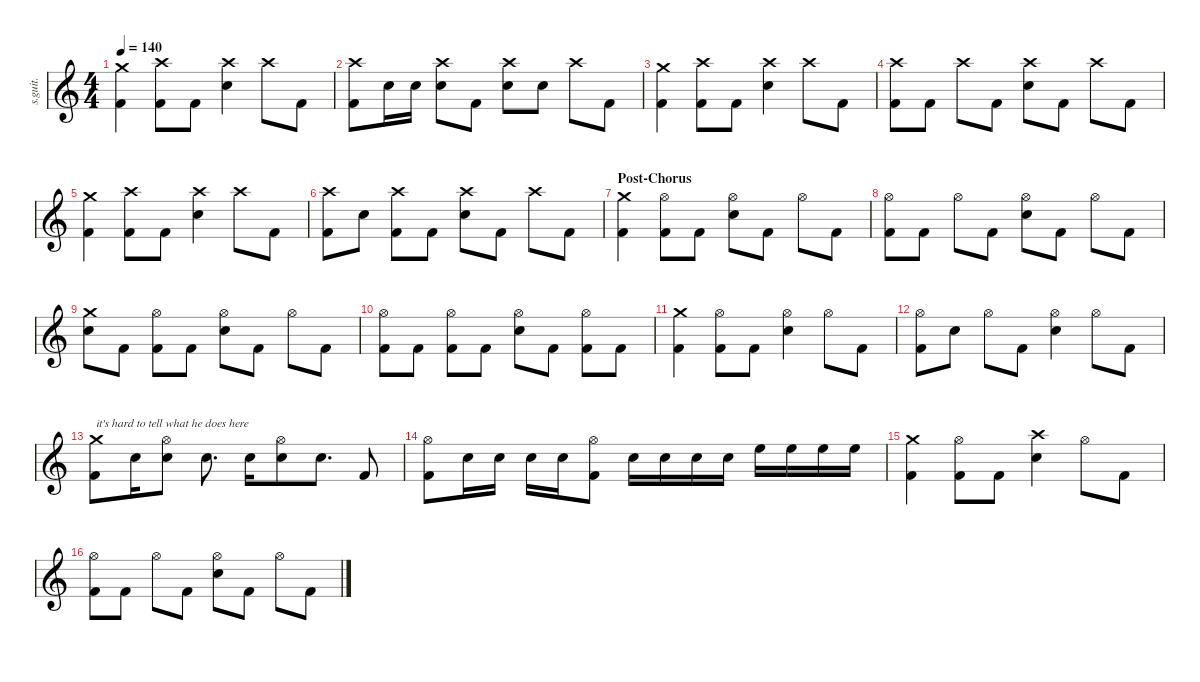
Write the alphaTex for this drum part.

\defaultSystemsLayout 4
\hideDynamics
\bracketExtendMode nobrackets
\track ("Abe Cunningham" "s.guit.") {instrument percussion}
\staff {score}
\articulation defaults
\ts (4 4)
\tempo 140
\clef g2
\ks c
("Crash medium (hit)" "Kick (hit) 2").4{lyrics (0 "") lyrics (1 "") lyrics (2 "") lyrics (3 "") lyrics (4 "") dy fff} ("Crash high (hit)" "Kick (hit) 2").8{lyrics (0 "") lyrics (1 "") lyrics (2 "") lyrics (3 "") lyrics (4 "")} "Kick (hit) 2".8{lyrics (0 "") lyrics (1 "") lyrics (2 "") lyrics (3 "") lyrics (4 "")} ("Crash high (hit)" "Snare (hit) 2").4{lyrics (0 "") lyrics (1 "") lyrics (2 "") lyrics (3 "") lyrics (4 "")} "Crash high (hit)".8{lyrics (0 "") lyrics (1 "") lyrics (2 "") lyrics (3 "") lyrics (4 "")} "Kick (hit) 2".8{lyrics (0 "") lyrics (1 "") lyrics (2 "") lyrics (3 "") lyrics (4 "")} |
("Crash high (hit)" "Kick (hit) 2").8{lyrics (0 "") lyrics (1 "") lyrics (2 "") lyrics (3 "") lyrics (4 "")} "Snare (hit) 2".16{lyrics (0 "") lyrics (1 "") lyrics (2 "") lyrics (3 "") lyrics (4 "")} "Snare (hit) 2".16{lyrics (0 "") lyrics (1 "") lyrics (2 "") lyrics (3 "") lyrics (4 "")} ("Crash high (hit)" "Snare (hit) 2").8{lyrics (0 "") lyrics (1 "") lyrics (2 "") lyrics (3 "") lyrics (4 "")} "Kick (hit) 2".8{lyrics (0 "") lyrics (1 "") lyrics (2 "") lyrics (3 "") lyrics (4 "")} ("Crash high (hit)" "Snare (hit) 2").8{lyrics (0 "") lyrics (1 "") lyrics (2 "") lyrics (3 "") lyrics (4 "")} "Snare (hit) 2".8{lyrics (0 "") lyrics (1 "") lyrics (2 "") lyrics (3 "") lyrics (4 "")} "Crash high (hit)".8{lyrics (0 "") lyrics (1 "") lyrics (2 "") lyrics (3 "") lyrics (4 "")} "Kick (hit) 2".8{lyrics (0 "") lyrics (1 "") lyrics (2 "") lyrics (3 "") lyrics (4 "")} |
("Crash medium (hit)" "Kick (hit) 2").4{lyrics (0 "") lyrics (1 "") lyrics (2 "") lyrics (3 "") lyrics (4 "")} ("Crash high (hit)" "Kick (hit) 2").8{lyrics (0 "") lyrics (1 "") lyrics (2 "") lyrics (3 "") lyrics (4 "")} "Kick (hit) 2".8{lyrics (0 "") lyrics (1 "") lyrics (2 "") lyrics (3 "") lyrics (4 "")} ("Crash high (hit)" "Snare (hit) 2").4{lyrics (0 "") lyrics (1 "") lyrics (2 "") lyrics (3 "") lyrics (4 "")} "Crash high (hit)".8{lyrics (0 "") lyrics (1 "") lyrics (2 "") lyrics (3 "") lyrics (4 "")} "Kick (hit) 2".8{lyrics (0 "") lyrics (1 "") lyrics (2 "") lyrics (3 "") lyrics (4 "")} |
("Crash high (hit)" "Kick (hit) 2").8{lyrics (0 "") lyrics (1 "") lyrics (2 "") lyrics (3 "") lyrics (4 "")} "Kick (hit) 2".8{lyrics (0 "") lyrics (1 "") lyrics (2 "") lyrics (3 "") lyrics (4 "")} "Crash high (hit)".8{lyrics (0 "") lyrics (1 "") lyrics (2 "") lyrics (3 "") lyrics (4 "")} "Kick (hit) 2".8{lyrics (0 "") lyrics (1 "") lyrics (2 "") lyrics (3 "") lyrics (4 "")} ("Crash high (hit)" "Snare (hit) 2").8{lyrics (0 "") lyrics (1 "") lyrics (2 "") lyrics (3 "") lyrics (4 "")} "Kick (hit) 2".8{lyrics (0 "") lyrics (1 "") lyrics (2 "") lyrics (3 "") lyrics (4 "")} "Crash high (hit)".8{lyrics (0 "") lyrics (1 "") lyrics (2 "") lyrics (3 "") lyrics (4 "")} "Kick (hit) 2".8{lyrics (0 "") lyrics (1 "") lyrics (2 "") lyrics (3 "") lyrics (4 "")} |
("Crash medium (hit)" "Kick (hit) 2").4{lyrics (0 "") lyrics (1 "") lyrics (2 "") lyrics (3 "") lyrics (4 "")} ("Crash high (hit)" "Kick (hit) 2").8{lyrics (0 "") lyrics (1 "") lyrics (2 "") lyrics (3 "") lyrics (4 "")} "Kick (hit) 2".8{lyrics (0 "") lyrics (1 "") lyrics (2 "") lyrics (3 "") lyrics (4 "")} ("Crash high (hit)" "Snare (hit) 2").4{lyrics (0 "") lyrics (1 "") lyrics (2 "") lyrics (3 "") lyrics (4 "")} "Crash high (hit)".8{lyrics (0 "") lyrics (1 "") lyrics (2 "") lyrics (3 "") lyrics (4 "")} "Kick (hit) 2".8{lyrics (0 "") lyrics (1 "") lyrics (2 "") lyrics (3 "") lyrics (4 "")} |
("Crash high (hit)" "Kick (hit) 2").8{lyrics (0 "") lyrics (1 "") lyrics (2 "") lyrics (3 "") lyrics (4 "")} "Snare (hit) 2".8{lyrics (0 "") lyrics (1 "") lyrics (2 "") lyrics (3 "") lyrics (4 "")} ("Crash high (hit)" "Kick (hit) 2").8{lyrics (0 "") lyrics (1 "") lyrics (2 "") lyrics (3 "") lyrics (4 "")} "Kick (hit) 2".8{lyrics (0 "") lyrics (1 "") lyrics (2 "") lyrics (3 "") lyrics (4 "")} ("Crash high (hit)" "Snare (hit) 2").8{lyrics (0 "") lyrics (1 "") lyrics (2 "") lyrics (3 "") lyrics (4 "")} "Kick (hit) 2".8{lyrics (0 "") lyrics (1 "") lyrics (2 "") lyrics (3 "") lyrics (4 "")} "Crash high (hit)".8{lyrics (0 "") lyrics (1 "") lyrics (2 "") lyrics (3 "") lyrics (4 "")} "Kick (hit) 2".8{lyrics (0 "") lyrics (1 "") lyrics (2 "") lyrics (3 "") lyrics (4 "")} |
\section ("" "Post-Chorus")
("Crash medium (hit)" "Kick (hit) 2").4{lyrics (0 "") lyrics (1 "") lyrics (2 "") lyrics (3 "") lyrics (4 "")} ("Hi-Hat (open)" "Kick (hit) 2").8{lyrics (0 "") lyrics (1 "") lyrics (2 "") lyrics (3 "") lyrics (4 "")} "Kick (hit) 2".8{lyrics (0 "") lyrics (1 "") lyrics (2 "") lyrics (3 "") lyrics (4 "")} ("Hi-Hat (open)" "Snare (hit) 2").8{lyrics (0 "") lyrics (1 "") lyrics (2 "") lyrics (3 "") lyrics (4 "")} "Kick (hit) 2".8{lyrics (0 "") lyrics (1 "") lyrics (2 "") lyrics (3 "") lyrics (4 "")} "Hi-Hat (open)".8{lyrics (0 "") lyrics (1 "") lyrics (2 "") lyrics (3 "") lyrics (4 "")} "Kick (hit) 2".8{lyrics (0 "") lyrics (1 "") lyrics (2 "") lyrics (3 "") lyrics (4 "")} |
("Hi-Hat (open)" "Kick (hit) 2").8{lyrics (0 "") lyrics (1 "") lyrics (2 "") lyrics (3 "") lyrics (4 "")} "Kick (hit) 2".8{lyrics (0 "") lyrics (1 "") lyrics (2 "") lyrics (3 "") lyrics (4 "")} "Hi-Hat (open)".8{lyrics (0 "") lyrics (1 "") lyrics (2 "") lyrics (3 "") lyrics (4 "")} "Kick (hit) 2".8{lyrics (0 "") lyrics (1 "") lyrics (2 "") lyrics (3 "") lyrics (4 "")} ("Hi-Hat (open)" "Snare (hit) 2").8{lyrics (0 "") lyrics (1 "") lyrics (2 "") lyrics (3 "") lyrics (4 "")} "Kick (hit) 2".8{lyrics (0 "") lyrics (1 "") lyrics (2 "") lyrics (3 "") lyrics (4 "")} "Hi-Hat (open)".8{lyrics (0 "") lyrics (1 "") lyrics (2 "") lyrics (3 "") lyrics (4 "")} "Kick (hit) 2".8{lyrics (0 "") lyrics (1 "") lyrics (2 "") lyrics (3 "") lyrics (4 "")} |
("Crash medium (hit)" "Snare (hit) 2").8{lyrics (0 "") lyrics (1 "") lyrics (2 "") lyrics (3 "") lyrics (4 "")} "Kick (hit) 2".8{lyrics (0 "") lyrics (1 "") lyrics (2 "") lyrics (3 "") lyrics (4 "")} ("Hi-Hat (open)" "Kick (hit) 2").8{lyrics (0 "") lyrics (1 "") lyrics (2 "") lyrics (3 "") lyrics (4 "")} "Kick (hit) 2".8{lyrics (0 "") lyrics (1 "") lyrics (2 "") lyrics (3 "") lyrics (4 "")} ("Hi-Hat (open)" "Snare (hit) 2").8{lyrics (0 "") lyrics (1 "") lyrics (2 "") lyrics (3 "") lyrics (4 "")} "Kick (hit) 2".8{lyrics (0 "") lyrics (1 "") lyrics (2 "") lyrics (3 "") lyrics (4 "")} "Hi-Hat (open)".8{lyrics (0 "") lyrics (1 "") lyrics (2 "") lyrics (3 "") lyrics (4 "")} "Kick (hit) 2".8{lyrics (0 "") lyrics (1 "") lyrics (2 "") lyrics (3 "") lyrics (4 "")} |
("Hi-Hat (open)" "Kick (hit) 2").8{lyrics (0 "") lyrics (1 "") lyrics (2 "") lyrics (3 "") lyrics (4 "")} "Kick (hit) 2".8{lyrics (0 "") lyrics (1 "") lyrics (2 "") lyrics (3 "") lyrics (4 "")} ("Hi-Hat (open)" "Kick (hit) 2").8{lyrics (0 "") lyrics (1 "") lyrics (2 "") lyrics (3 "") lyrics (4 "")} "Kick (hit) 2".8{lyrics (0 "") lyrics (1 "") lyrics (2 "") lyrics (3 "") lyrics (4 "")} ("Hi-Hat (open)" "Snare (hit) 2").8{lyrics (0 "") lyrics (1 "") lyrics (2 "") lyrics (3 "") lyrics (4 "")} "Kick (hit) 2".8{lyrics (0 "") lyrics (1 "") lyrics (2 "") lyrics (3 "") lyrics (4 "")} ("Hi-Hat (open)" "Kick (hit) 2").8{lyrics (0 "") lyrics (1 "") lyrics (2 "") lyrics (3 "") lyrics (4 "")} "Kick (hit) 2".8{lyrics (0 "") lyrics (1 "") lyrics (2 "") lyrics (3 "") lyrics (4 "")} |
("Crash medium (hit)" "Kick (hit) 2").4{lyrics (0 "") lyrics (1 "") lyrics (2 "") lyrics (3 "") lyrics (4 "")} ("Hi-Hat (open)" "Kick (hit) 2").8{lyrics (0 "") lyrics (1 "") lyrics (2 "") lyrics (3 "") lyrics (4 "")} "Kick (hit) 2".8{lyrics (0 "") lyrics (1 "") lyrics (2 "") lyrics (3 "") lyrics (4 "")} ("Hi-Hat (open)" "Snare (hit) 2").4{lyrics (0 "") lyrics (1 "") lyrics (2 "") lyrics (3 "") lyrics (4 "")} "Hi-Hat (open)".8{lyrics (0 "") lyrics (1 "") lyrics (2 "") lyrics (3 "") lyrics (4 "")} "Kick (hit) 2".8{lyrics (0 "") lyrics (1 "") lyrics (2 "") lyrics (3 "") lyrics (4 "")} |
("Hi-Hat (open)" "Kick (hit) 2").8{lyrics (0 "") lyrics (1 "") lyrics (2 "") lyrics (3 "") lyrics (4 "")} "Snare (hit) 2".8{lyrics (0 "") lyrics (1 "") lyrics (2 "") lyrics (3 "") lyrics (4 "")} "Hi-Hat (open)".8{lyrics (0 "") lyrics (1 "") lyrics (2 "") lyrics (3 "") lyrics (4 "")} "Kick (hit) 2".8{lyrics (0 "") lyrics (1 "") lyrics (2 "") lyrics (3 "") lyrics (4 "")} ("Hi-Hat (open)" "Snare (hit) 2").4{lyrics (0 "") lyrics (1 "") lyrics (2 "") lyrics (3 "") lyrics (4 "")} "Hi-Hat (open)".8{lyrics (0 "") lyrics (1 "") lyrics (2 "") lyrics (3 "") lyrics (4 "")} "Kick (hit) 2".8{lyrics (0 "") lyrics (1 "") lyrics (2 "") lyrics (3 "") lyrics (4 "")} |
("Crash medium (hit)" "Kick (hit) 2").8{txt "it's hard to tell what he does here" lyrics (0 "") lyrics (1 "") lyrics (2 "") lyrics (3 "") lyrics (4 "")} "Snare (hit) 2".16{lyrics (0 "") lyrics (1 "") lyrics (2 "") lyrics (3 "") lyrics (4 "")} ("Hi-Hat (open)" "Snare (hit) 2").8{lyrics (0 "") lyrics (1 "") lyrics (2 "") lyrics (3 "") lyrics (4 "")} "Snare (hit) 2".8{d lyrics (0 "") lyrics (1 "") lyrics (2 "") lyrics (3 "") lyrics (4 "")} "Snare (hit) 2".16{lyrics (0 "") lyrics (1 "") lyrics (2 "") lyrics (3 "") lyrics (4 "")} ("Hi-Hat (open)" "Snare (hit) 2").8{lyrics (0 "") lyrics (1 "") lyrics (2 "") lyrics (3 "") lyrics (4 "")} "Snare (hit) 2".8{d lyrics (0 "") lyrics (1 "") lyrics (2 "") lyrics (3 "") lyrics (4 "")} "Kick (hit) 2".8{lyrics (0 "") lyrics (1 "") lyrics (2 "") lyrics (3 "") lyrics (4 "")} |
("Hi-Hat (open)" "Kick (hit) 2").8{lyrics (0 "") lyrics (1 "") lyrics (2 "") lyrics (3 "") lyrics (4 "")} "Snare (hit) 2".16{lyrics (0 "") lyrics (1 "") lyrics (2 "") lyrics (3 "") lyrics (4 "")} "Snare (hit) 2".16{lyrics (0 "") lyrics (1 "") lyrics (2 "") lyrics (3 "") lyrics (4 "")} "Snare (hit) 2".16{lyrics (0 "") lyrics (1 "") lyrics (2 "") lyrics (3 "") lyrics (4 "")} "Snare (hit) 2".16{lyrics (0 "") lyrics (1 "") lyrics (2 "") lyrics (3 "") lyrics (4 "")} ("Hi-Hat (open)" "Kick (hit) 2").8{lyrics (0 "") lyrics (1 "") lyrics (2 "") lyrics (3 "") lyrics (4 "")} "Snare (hit) 2".16{lyrics (0 "") lyrics (1 "") lyrics (2 "") lyrics (3 "") lyrics (4 "")} "Snare (hit) 2".16{lyrics (0 "") lyrics (1 "") lyrics (2 "") lyrics (3 "") lyrics (4 "")} "Snare (hit) 2".16{lyrics (0 "") lyrics (1 "") lyrics (2 "") lyrics (3 "") lyrics (4 "")} "Snare (hit) 2".16{lyrics (0 "") lyrics (1 "") lyrics (2 "") lyrics (3 "") lyrics (4 "")} "High Floor Tom (hit)".16{lyrics (0 "") lyrics (1 "") lyrics (2 "") lyrics (3 "") lyrics (4 "")} "High Floor Tom (hit)".16{lyrics (0 "") lyrics (1 "") lyrics (2 "") lyrics (3 "") lyrics (4 "")} "High Floor Tom (hit)".16{lyrics (0 "") lyrics (1 "") lyrics (2 "") lyrics (3 "") lyrics (4 "")} "High Floor Tom (hit)".16{lyrics (0 "") lyrics (1 "") lyrics (2 "") lyrics (3 "") lyrics (4 "")} |
("Crash medium (hit)" "Kick (hit) 2").4{lyrics (0 "") lyrics (1 "") lyrics (2 "") lyrics (3 "") lyrics (4 "")} ("Hi-Hat (open)" "Kick (hit) 2").8{lyrics (0 "") lyrics (1 "") lyrics (2 "") lyrics (3 "") lyrics (4 "")} "Kick (hit) 2".8{lyrics (0 "") lyrics (1 "") lyrics (2 "") lyrics (3 "") lyrics (4 "")} ("Crash high (hit)" "Snare (hit) 2").4{lyrics (0 "") lyrics (1 "") lyrics (2 "") lyrics (3 "") lyrics (4 "")} "Hi-Hat (open)".8{lyrics (0 "") lyrics (1 "") lyrics (2 "") lyrics (3 "") lyrics (4 "")} "Kick (hit) 2".8{lyrics (0 "") lyrics (1 "") lyrics (2 "") lyrics (3 "") lyrics (4 "")} |
("Hi-Hat (open)" "Kick (hit) 2").8{lyrics (0 "") lyrics (1 "") lyrics (2 "") lyrics (3 "") lyrics (4 "")} "Kick (hit) 2".8{lyrics (0 "") lyrics (1 "") lyrics (2 "") lyrics (3 "") lyrics (4 "")} "Hi-Hat (open)".8{lyrics (0 "") lyrics (1 "") lyrics (2 "") lyrics (3 "") lyrics (4 "")} "Kick (hit) 2".8{lyrics (0 "") lyrics (1 "") lyrics (2 "") lyrics (3 "") lyrics (4 "")} ("Hi-Hat (open)" "Snare (hit) 2").8{lyrics (0 "") lyrics (1 "") lyrics (2 "") lyrics (3 "") lyrics (4 "")} "Kick (hit) 2".8{lyrics (0 "") lyrics (1 "") lyrics (2 "") lyrics (3 "") lyrics (4 "")} "Hi-Hat (open)".8{lyrics (0 "") lyrics (1 "") lyrics (2 "") lyrics (3 "") lyrics (4 "")} "Kick (hit) 2".8{lyrics (0 "") lyrics (1 "") lyrics (2 "") lyrics (3 "") lyrics (4 "")}
